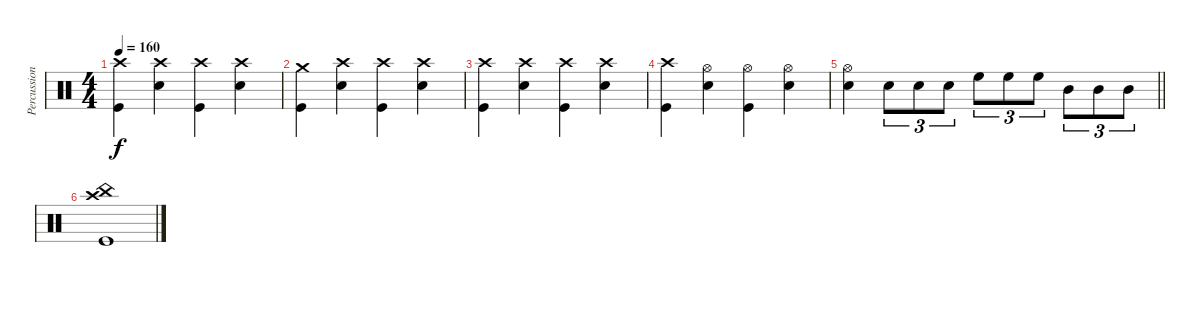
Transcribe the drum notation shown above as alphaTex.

\track ("Percussions" "Percussion") {instrument percussion}
\staff {score}
\articulation defaults
\ts (4 4)
\tempo 160
\clef neutral
\ks c
("Kick (hit)" "Crash high (hit)").4{dy f} ("Snare (hit) 2" "Crash high (hit)").4 ("Kick (hit)" "Crash high (hit)").4 ("Snare (hit) 2" "Crash high (hit)").4 |
("Kick (hit)" "Crash medium (hit)").4 ("Snare (hit) 2" "Crash high (hit)").4 ("Kick (hit)" "Crash high (hit)").4 ("Snare (hit) 2" "Crash high (hit)").4 |
("Kick (hit)" "Crash high (hit)").4 ("Snare (hit) 2" "Crash high (hit)").4 ("Kick (hit)" "Crash high (hit)").4 ("Snare (hit) 2" "Crash high (hit)").4 |
("Kick (hit)" "Crash high (hit)").4 ("Snare (hit) 2" "Hi-Hat (open)").4 ("Kick (hit)" "Hi-Hat (open)").4 ("Snare (hit) 2" "Hi-Hat (open)").4 |
\barLineRight lightlight
("Snare (hit) 2" "Hi-Hat (open)").4 "Snare (hit) 2".8{tu (3 2)} "Snare (hit) 2".8{tu (3 2)} "Snare (hit) 2".8{tu (3 2)} "High Floor Tom (hit)".8{tu (3 2)} "High Floor Tom (hit)".8{tu (3 2)} "High Floor Tom (hit)".8{tu (3 2)} "Mid Tom (hit)".8{tu (3 2)} "Mid Tom (hit)".8{tu (3 2)} "Mid Tom (hit)".8{tu (3 2)} |
("Kick (hit)" "Crash high (hit)" "China (hit)").1
